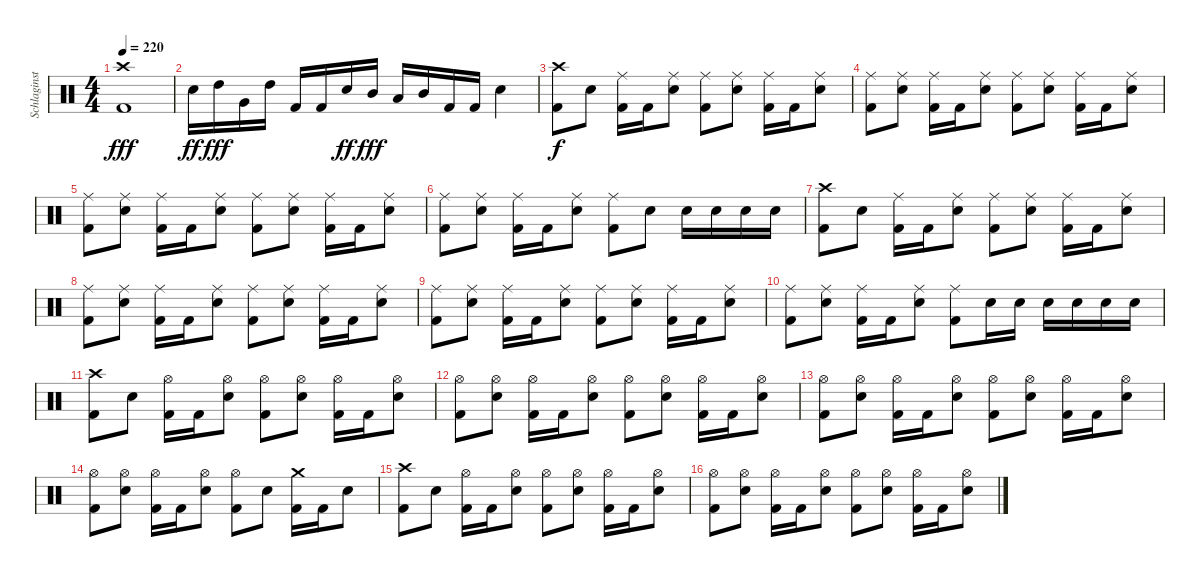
\track ("Schlaginstrumente - Auswahl" "Schlaginst") {instrument percussion}
\staff {score}
\articulation defaults
\ts (4 4)
\tempo 220
\clef neutral
\ks c
("Crash high (hit)" "Kick (hit) 2").1{dy fff} |
"Snare (hit) 2".16{dy ff} "High Tom (hit)".16{dy fff} "Very Low Tom (hit)".16 "High Tom (hit)".16 "Kick (hit) 2".16 "Kick (hit) 2".16 "Snare (hit) 2".16{dy ff} "Mid Tom (hit)".16{dy fff} "Low Floor Tom (hit)".16 "Mid Tom (hit)".16 "Kick (hit) 2".16 "Kick (hit) 2".16 "Snare (hit) 2".4 |
("Crash high (hit)" "Kick (hit) 2").8{dy f} "Snare (hit) 2".8 ("Ride (middle)" "Kick (hit) 2").16 "Kick (hit) 2".16 ("Ride (middle)" "Snare (hit) 2").8 ("Ride (middle)" "Kick (hit) 2").8 ("Ride (middle)" "Snare (hit) 2").8 ("Ride (middle)" "Kick (hit) 2").16 "Kick (hit) 2".16 ("Ride (middle)" "Snare (hit) 2").8 |
("Ride (middle)" "Kick (hit) 2").8 ("Ride (middle)" "Snare (hit) 2").8 ("Ride (middle)" "Kick (hit) 2").16 "Kick (hit) 2".16 ("Ride (middle)" "Snare (hit) 2").8 ("Ride (middle)" "Kick (hit) 2").8 ("Ride (middle)" "Snare (hit) 2").8 ("Ride (middle)" "Kick (hit) 2").16 "Kick (hit) 2".16 ("Ride (middle)" "Snare (hit) 2").8 |
("Ride (middle)" "Kick (hit) 2").8 ("Ride (middle)" "Snare (hit) 2").8 ("Ride (middle)" "Kick (hit) 2").16 "Kick (hit) 2".16 ("Ride (middle)" "Snare (hit) 2").8 ("Ride (middle)" "Kick (hit) 2").8 ("Ride (middle)" "Snare (hit) 2").8 ("Ride (middle)" "Kick (hit) 2").16 "Kick (hit) 2".16 ("Ride (middle)" "Snare (hit) 2").8 |
("Ride (middle)" "Kick (hit) 2").8 ("Ride (middle)" "Snare (hit) 2").8 ("Ride (middle)" "Kick (hit) 2").16 "Kick (hit) 2".16 ("Ride (middle)" "Snare (hit) 2").8 ("Ride (middle)" "Kick (hit) 2").8 "Snare (hit) 2".8 "Snare (hit) 2".16 "Snare (hit) 2".16 "Snare (hit) 2".16 "Snare (hit) 2".16 |
("Crash high (hit)" "Kick (hit) 2").8 "Snare (hit) 2".8 ("Ride (middle)" "Kick (hit) 2").16 "Kick (hit) 2".16 ("Ride (middle)" "Snare (hit) 2").8 ("Ride (middle)" "Kick (hit) 2").8 ("Ride (middle)" "Snare (hit) 2").8 ("Ride (middle)" "Kick (hit) 2").16 "Kick (hit) 2".16 ("Ride (middle)" "Snare (hit) 2").8 |
("Ride (middle)" "Kick (hit) 2").8 ("Ride (middle)" "Snare (hit) 2").8 ("Ride (middle)" "Kick (hit) 2").16 "Kick (hit) 2".16 ("Ride (middle)" "Snare (hit) 2").8 ("Ride (middle)" "Kick (hit) 2").8 ("Ride (middle)" "Snare (hit) 2").8 ("Ride (middle)" "Kick (hit) 2").16 "Kick (hit) 2".16 ("Ride (middle)" "Snare (hit) 2").8 |
("Ride (middle)" "Kick (hit) 2").8 ("Ride (middle)" "Snare (hit) 2").8 ("Ride (middle)" "Kick (hit) 2").16 "Kick (hit) 2".16 ("Ride (middle)" "Snare (hit) 2").8 ("Ride (middle)" "Kick (hit) 2").8 ("Ride (middle)" "Snare (hit) 2").8 ("Ride (middle)" "Kick (hit) 2").16 "Kick (hit) 2".16 ("Ride (middle)" "Snare (hit) 2").8 |
("Ride (middle)" "Kick (hit) 2").8 ("Ride (middle)" "Snare (hit) 2").8 ("Ride (middle)" "Kick (hit) 2").16 "Kick (hit) 2".16 ("Ride (middle)" "Snare (hit) 2").8 ("Ride (middle)" "Kick (hit) 2").8 "Snare (hit) 2".16 "Snare (hit) 2".16 "Snare (hit) 2".16 "Snare (hit) 2".16 "Snare (hit) 2".16 "Snare (hit) 2".16 |
("Crash high (hit)" "Kick (hit) 2").8 "Snare (hit) 2".8 ("Hi-Hat (open)" "Kick (hit) 2").16 "Kick (hit) 2".16 ("Hi-Hat (open)" "Snare (hit) 2").8 ("Hi-Hat (open)" "Kick (hit) 2").8 ("Hi-Hat (open)" "Snare (hit) 2").8 ("Hi-Hat (open)" "Kick (hit) 2").16 "Kick (hit) 2".16 ("Hi-Hat (open)" "Snare (hit) 2").8 |
("Hi-Hat (open)" "Kick (hit) 2").8 ("Hi-Hat (open)" "Snare (hit) 2").8 ("Hi-Hat (open)" "Kick (hit) 2").16 "Kick (hit) 2".16 ("Hi-Hat (open)" "Snare (hit) 2").8 ("Hi-Hat (open)" "Kick (hit) 2").8 ("Hi-Hat (open)" "Snare (hit) 2").8 ("Hi-Hat (open)" "Kick (hit) 2").16 "Kick (hit) 2".16 ("Hi-Hat (open)" "Snare (hit) 2").8 |
("Hi-Hat (open)" "Kick (hit) 2").8 ("Hi-Hat (open)" "Snare (hit) 2").8 ("Hi-Hat (open)" "Kick (hit) 2").16 "Kick (hit) 2".16 ("Hi-Hat (open)" "Snare (hit) 2").8 ("Hi-Hat (open)" "Kick (hit) 2").8 ("Hi-Hat (open)" "Snare (hit) 2").8 ("Hi-Hat (open)" "Kick (hit) 2").16 "Kick (hit) 2".16 ("Hi-Hat (open)" "Snare (hit) 2").8 |
("Hi-Hat (open)" "Kick (hit) 2").8 ("Hi-Hat (open)" "Snare (hit) 2").8 ("Hi-Hat (open)" "Kick (hit) 2").16 "Kick (hit) 2".16 ("Hi-Hat (open)" "Snare (hit) 2").8 ("Hi-Hat (open)" "Kick (hit) 2").8 "Snare (hit) 2".8 ("Crash medium (hit)" "Kick (hit) 2").16 "Kick (hit) 2".16 "Snare (hit) 2".8 |
("Crash high (hit)" "Kick (hit) 2").8 "Snare (hit) 2".8 ("Hi-Hat (open)" "Kick (hit) 2").16 "Kick (hit) 2".16 ("Hi-Hat (open)" "Snare (hit) 2").8 ("Hi-Hat (open)" "Kick (hit) 2").8 ("Hi-Hat (open)" "Snare (hit) 2").8 ("Hi-Hat (open)" "Kick (hit) 2").16 "Kick (hit) 2".16 ("Hi-Hat (open)" "Snare (hit) 2").8 |
("Hi-Hat (open)" "Kick (hit) 2").8 ("Hi-Hat (open)" "Snare (hit) 2").8 ("Hi-Hat (open)" "Kick (hit) 2").16 "Kick (hit) 2".16 ("Hi-Hat (open)" "Snare (hit) 2").8 ("Hi-Hat (open)" "Kick (hit) 2").8 ("Hi-Hat (open)" "Snare (hit) 2").8 ("Hi-Hat (open)" "Kick (hit) 2").16 "Kick (hit) 2".16 ("Hi-Hat (open)" "Snare (hit) 2").8
